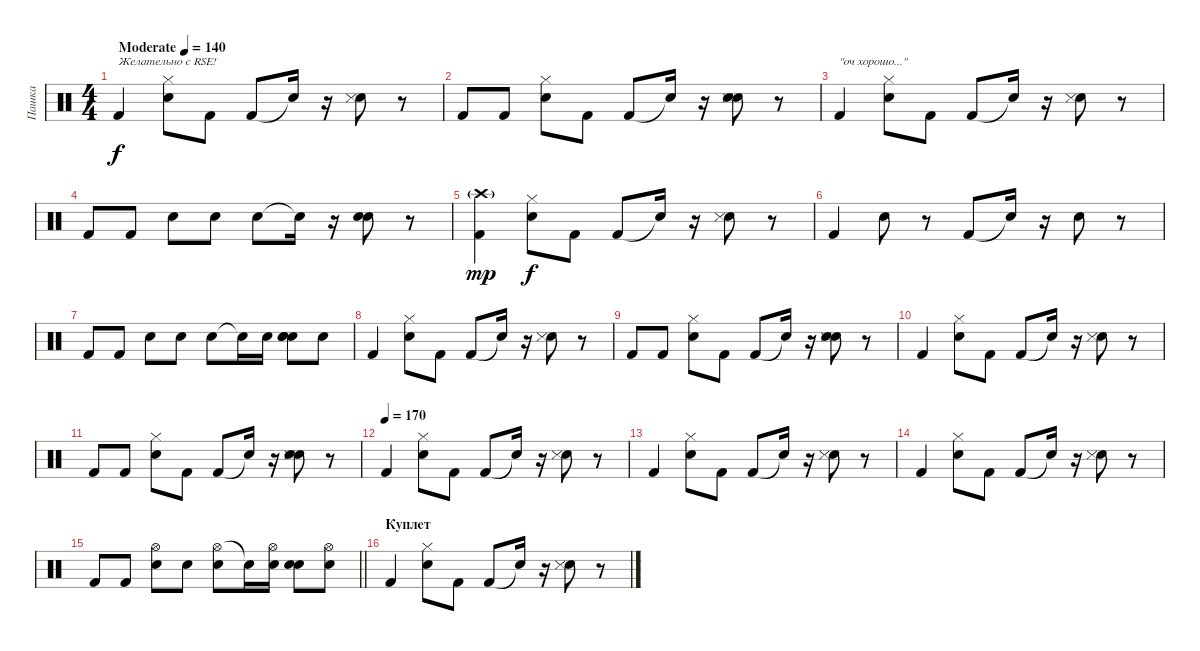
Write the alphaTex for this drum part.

\track ("Пашка" "Пашка") {instrument percussion}
\staff {score}
\articulation defaults
\ts (4 4)
\tempo (140 "Moderate")
\clef neutral
\ks c "Kick (hit) 2".4{txt "Желательно с RSE!" dy f}
("Hi-Hat (closed)" "Snare (hit) 2").8 "Kick (hit) 2".8 "Kick (hit) 2".8 "Snare (hit)"{t}.16 r.16 ("Metronome (bell)" "Snare (side stick) 3").8 r.8 |
"Kick (hit) 2".8 "Kick (hit) 2".8 ("Hi-Hat (closed)" "Snare (hit) 2").8 "Kick (hit) 2".8 "Kick (hit) 2".8 "Snare (hit)"{t}.16 r.16 ("Metronome (bell)" "Snare (side stick) 3" "Electric Snare (hit)").8 r.8 |
"Kick (hit) 2".4{txt "\"оч хорошо...\""} ("Hi-Hat (closed)" "Snare (hit) 2").8 "Kick (hit) 2".8 "Kick (hit) 2".8 "Snare (hit)"{t}.16 r.16 ("Metronome (bell)" "Snare (side stick) 3").8 r.8 |
"Kick (hit) 2".8 "Kick (hit) 2".8 "Electric Snare (hit)".8 "Electric Snare (hit)".8 "Electric Snare (hit)".8 "Snare (hit)"{t}.16 r.16 ("Snare (hit) 2" "Electric Snare (hit)").8 r.8 |
("Crash high (hit)"{g} "Kick (hit) 2").4{dy mp} ("Hi-Hat (closed)" "Snare (hit) 2").8{dy f} "Kick (hit) 2".8 "Kick (hit) 2".8 "Snare (hit)"{t}.16 r.16 ("Metronome (bell)" "Snare (side stick) 3").8 r.8 |
"Kick (hit) 2".4 "Snare (hit) 2".8 r.8 "Kick (hit) 2".8 "Snare (hit)"{t}.16 r.16 "Snare (hit) 2".8 r.8 |
"Kick (hit) 2".8 "Kick (hit) 2".8 "Electric Snare (hit)".8 "Electric Snare (hit)".8 "Electric Snare (hit)".8 "Snare (hit)"{t}.16 "Electric Snare (hit)".16 ("Electric Snare (hit)" "Snare (hit) 2" "Electric Snare (hit)").8 "Electric Snare (hit)".8 |
"Kick (hit) 2".4 ("Hi-Hat (closed)" "Snare (hit) 2").8 "Kick (hit) 2".8 "Kick (hit) 2".8 "Snare (hit)"{t}.16 r.16 ("Metronome (bell)" "Snare (side stick) 3").8 r.8 |
"Kick (hit) 2".8 "Kick (hit) 2".8 ("Hi-Hat (closed)" "Snare (hit) 2").8 "Kick (hit) 2".8 "Kick (hit) 2".8 "Snare (hit)"{t}.16 r.16 ("Metronome (bell)" "Snare (side stick) 3" "Electric Snare (hit)").8 r.8 |
"Kick (hit) 2".4 ("Hi-Hat (closed)" "Snare (hit) 2").8 "Kick (hit) 2".8 "Kick (hit) 2".8 "Snare (hit)"{t}.16 r.16 ("Metronome (bell)" "Snare (side stick) 3").8 r.8 |
"Kick (hit) 2".8 "Kick (hit) 2".8 ("Hi-Hat (closed)" "Snare (hit) 2").8 "Kick (hit) 2".8 "Kick (hit) 2".8 "Snare (hit)"{t}.16 r.16 ("Metronome (bell)" "Snare (side stick) 3" "Electric Snare (hit)").8 r.8 |
\tempo (170)
"Kick (hit) 2".4 ("Hi-Hat (closed)" "Snare (hit) 2").8 "Kick (hit) 2".8 "Kick (hit) 2".8 "Snare (hit)"{t}.16 r.16 ("Metronome (bell)" "Snare (side stick) 3").8 r.8 |
"Kick (hit) 2".4 ("Hi-Hat (closed)" "Snare (hit) 2").8 "Kick (hit) 2".8 "Kick (hit) 2".8 "Snare (hit)"{t}.16 r.16 ("Metronome (bell)" "Snare (side stick) 3").8 r.8 |
"Kick (hit) 2".4 ("Hi-Hat (closed)" "Snare (hit) 2").8 "Kick (hit) 2".8 "Kick (hit) 2".8 "Snare (hit)"{t}.16 r.16 ("Metronome (bell)" "Snare (side stick) 3").8 r.8 |
\barLineRight lightlight "Kick (hit) 2".8 "Kick (hit) 2".8
("Hi-Hat (open)" "Electric Snare (hit)").8 "Electric Snare (hit)".8 ("Hi-Hat (open)" "Electric Snare (hit)").8 "Snare (hit)"{t}.16 ("Electric Snare (hit)" "Hi-Hat (open)").16 ("Snare (hit) 2" "Electric Snare (hit)").8 ("Electric Snare (hit)" "Hi-Hat (open)").8 |
\section ("" "Куплет")
"Kick (hit) 2".4 ("Hi-Hat (closed)" "Snare (hit) 2").8 "Kick (hit) 2".8 "Kick (hit) 2".8 "Snare (hit)"{t}.16 r.16 ("Metronome (bell)" "Snare (side stick) 3").8 r.8
